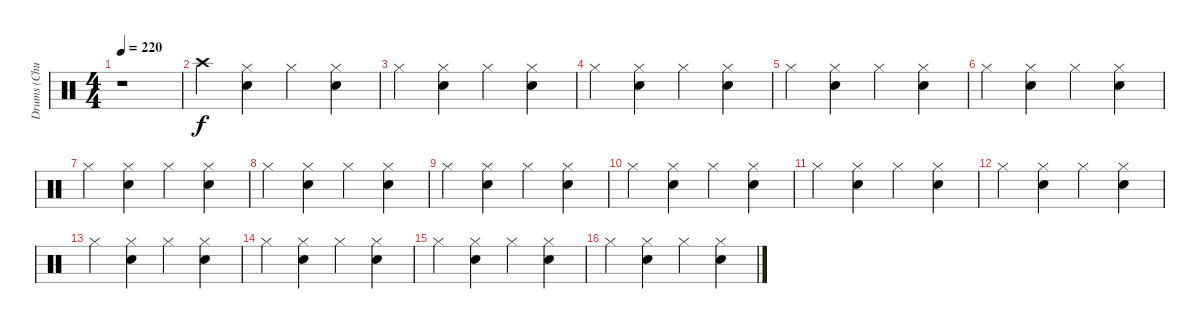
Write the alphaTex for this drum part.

\track ("Drums (Chuck Behler)" "Drums (Chu") {instrument percussion}
\staff {score}
\articulation defaults
\ts (4 4)
\tempo 220
\clef neutral
\ks c
r.1{dy f} |
"Crash high (hit)".4 ("Hi-Hat (closed)" "Snare (hit) 2").4 "Hi-Hat (closed)".4 ("Hi-Hat (closed)" "Snare (hit) 2").4 |
"Hi-Hat (closed)".4 ("Hi-Hat (closed)" "Snare (hit) 2").4 "Hi-Hat (closed)".4 ("Hi-Hat (closed)" "Snare (hit) 2").4 |
"Hi-Hat (closed)".4 ("Hi-Hat (closed)" "Snare (hit) 2").4 "Hi-Hat (closed)".4 ("Hi-Hat (closed)" "Snare (hit) 2").4 |
"Hi-Hat (closed)".4 ("Hi-Hat (closed)" "Snare (hit) 2").4 "Hi-Hat (closed)".4 ("Hi-Hat (closed)" "Snare (hit) 2").4 |
"Hi-Hat (closed)".4 ("Hi-Hat (closed)" "Snare (hit) 2").4 "Hi-Hat (closed)".4 ("Hi-Hat (closed)" "Snare (hit) 2").4 |
"Hi-Hat (closed)".4 ("Hi-Hat (closed)" "Snare (hit) 2").4 "Hi-Hat (closed)".4 ("Hi-Hat (closed)" "Snare (hit) 2").4 |
"Hi-Hat (closed)".4 ("Hi-Hat (closed)" "Snare (hit) 2").4 "Hi-Hat (closed)".4 ("Hi-Hat (closed)" "Snare (hit) 2").4 |
"Hi-Hat (closed)".4 ("Hi-Hat (closed)" "Snare (hit) 2").4 "Hi-Hat (closed)".4 ("Hi-Hat (closed)" "Snare (hit) 2").4 |
"Hi-Hat (closed)".4 ("Hi-Hat (closed)" "Snare (hit) 2").4 "Hi-Hat (closed)".4 ("Hi-Hat (closed)" "Snare (hit) 2").4 |
"Hi-Hat (closed)".4 ("Hi-Hat (closed)" "Snare (hit) 2").4 "Hi-Hat (closed)".4 ("Hi-Hat (closed)" "Snare (hit) 2").4 |
"Hi-Hat (closed)".4 ("Hi-Hat (closed)" "Snare (hit) 2").4 "Hi-Hat (closed)".4 ("Hi-Hat (closed)" "Snare (hit) 2").4 |
"Hi-Hat (closed)".4 ("Hi-Hat (closed)" "Snare (hit) 2").4 "Hi-Hat (closed)".4 ("Hi-Hat (closed)" "Snare (hit) 2").4 |
"Hi-Hat (closed)".4 ("Hi-Hat (closed)" "Snare (hit) 2").4 "Hi-Hat (closed)".4 ("Hi-Hat (closed)" "Snare (hit) 2").4 |
"Hi-Hat (closed)".4 ("Hi-Hat (closed)" "Snare (hit) 2").4 "Hi-Hat (closed)".4 ("Hi-Hat (closed)" "Snare (hit) 2").4 |
"Hi-Hat (closed)".4 ("Hi-Hat (closed)" "Snare (hit) 2").4 "Hi-Hat (closed)".4 ("Hi-Hat (closed)" "Snare (hit) 2").4
